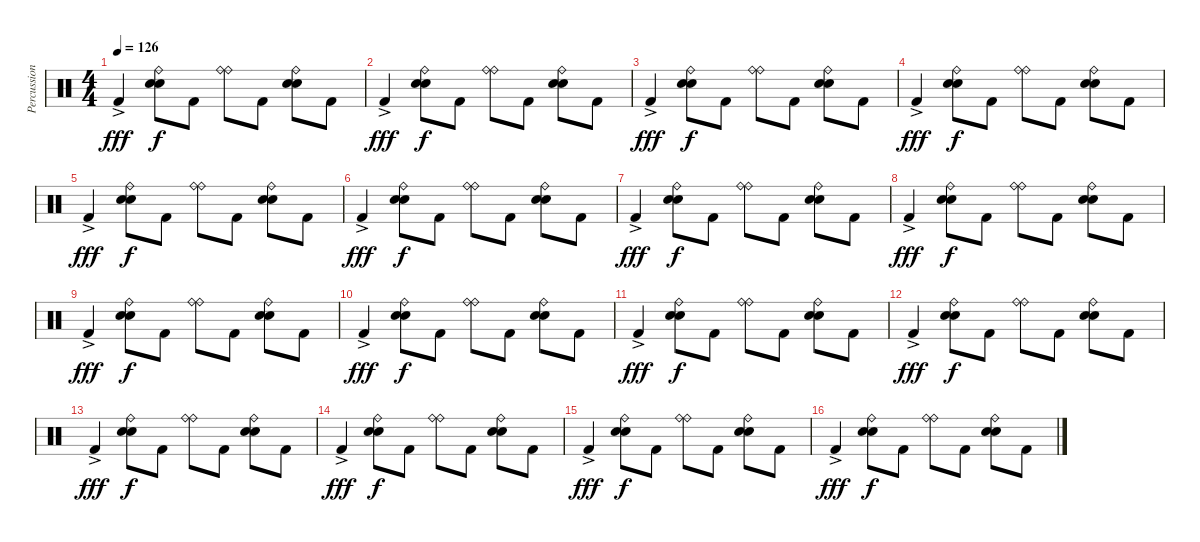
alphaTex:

\track ("Percussion" "Percussion") {instrument percussion}
\staff {score}
\articulation defaults
\ts (4 4)
\tempo 126
\clef neutral
\ks c "Kick (hit) 2"{ac}.4{dy fff}
("Snare (hit) 2" "Ride (bell)" "Snare (hit) 2").8{dy f} "Kick (hit) 2".8 ("Ride (bell)" "Ride (bell)").8 "Kick (hit) 2".8 ("Snare (hit) 2" "Ride (bell)" "Snare (hit) 2").8 "Kick (hit) 2".8 |
"Kick (hit) 2"{ac}.4{dy fff} ("Snare (hit) 2" "Ride (bell)" "Snare (hit) 2").8{dy f} "Kick (hit) 2".8 ("Ride (bell)" "Ride (bell)").8 "Kick (hit) 2".8 ("Snare (hit) 2" "Ride (bell)" "Snare (hit) 2").8 "Kick (hit) 2".8 |
"Kick (hit) 2"{ac}.4{dy fff} ("Snare (hit) 2" "Ride (bell)" "Snare (hit) 2").8{dy f} "Kick (hit) 2".8 ("Ride (bell)" "Ride (bell)").8 "Kick (hit) 2".8 ("Snare (hit) 2" "Ride (bell)" "Snare (hit) 2").8 "Kick (hit) 2".8 |
"Kick (hit) 2"{ac}.4{dy fff} ("Snare (hit) 2" "Ride (bell)" "Snare (hit) 2").8{dy f} "Kick (hit) 2".8 ("Ride (bell)" "Ride (bell)").8 "Kick (hit) 2".8 ("Snare (hit) 2" "Ride (bell)" "Snare (hit) 2").8 "Kick (hit) 2".8 |
"Kick (hit) 2"{ac}.4{dy fff} ("Snare (hit) 2" "Ride (bell)" "Snare (hit) 2").8{dy f} "Kick (hit) 2".8 ("Ride (bell)" "Ride (bell)").8 "Kick (hit) 2".8 ("Snare (hit) 2" "Ride (bell)" "Snare (hit) 2").8 "Kick (hit) 2".8 |
"Kick (hit) 2"{ac}.4{dy fff} ("Snare (hit) 2" "Ride (bell)" "Snare (hit) 2").8{dy f} "Kick (hit) 2".8 ("Ride (bell)" "Ride (bell)").8 "Kick (hit) 2".8 ("Snare (hit) 2" "Ride (bell)" "Snare (hit) 2").8 "Kick (hit) 2".8 |
"Kick (hit) 2"{ac}.4{dy fff} ("Snare (hit) 2" "Ride (bell)" "Snare (hit) 2").8{dy f} "Kick (hit) 2".8 ("Ride (bell)" "Ride (bell)").8 "Kick (hit) 2".8 ("Snare (hit) 2" "Ride (bell)" "Snare (hit) 2").8 "Kick (hit) 2".8 |
"Kick (hit) 2"{ac}.4{dy fff} ("Snare (hit) 2" "Ride (bell)" "Snare (hit) 2").8{dy f} "Kick (hit) 2".8 ("Ride (bell)" "Ride (bell)").8 "Kick (hit) 2".8 ("Snare (hit) 2" "Ride (bell)" "Snare (hit) 2").8 "Kick (hit) 2".8 |
"Kick (hit) 2"{ac}.4{dy fff} ("Snare (hit) 2" "Ride (bell)" "Snare (hit) 2").8{dy f} "Kick (hit) 2".8 ("Ride (bell)" "Ride (bell)").8 "Kick (hit) 2".8 ("Snare (hit) 2" "Ride (bell)" "Snare (hit) 2").8 "Kick (hit) 2".8 |
"Kick (hit) 2"{ac}.4{dy fff} ("Snare (hit) 2" "Ride (bell)" "Snare (hit) 2").8{dy f} "Kick (hit) 2".8 ("Ride (bell)" "Ride (bell)").8 "Kick (hit) 2".8 ("Snare (hit) 2" "Ride (bell)" "Snare (hit) 2").8 "Kick (hit) 2".8 |
"Kick (hit) 2"{ac}.4{dy fff} ("Snare (hit) 2" "Ride (bell)" "Snare (hit) 2").8{dy f} "Kick (hit) 2".8 ("Ride (bell)" "Ride (bell)").8 "Kick (hit) 2".8 ("Snare (hit) 2" "Ride (bell)" "Snare (hit) 2").8 "Kick (hit) 2".8 |
"Kick (hit) 2"{ac}.4{dy fff} ("Snare (hit) 2" "Ride (bell)" "Snare (hit) 2").8{dy f} "Kick (hit) 2".8 ("Ride (bell)" "Ride (bell)").8 "Kick (hit) 2".8 ("Snare (hit) 2" "Ride (bell)" "Snare (hit) 2").8 "Kick (hit) 2".8 |
"Kick (hit) 2"{ac}.4{dy fff} ("Snare (hit) 2" "Ride (bell)" "Snare (hit) 2").8{dy f} "Kick (hit) 2".8 ("Ride (bell)" "Ride (bell)").8 "Kick (hit) 2".8 ("Snare (hit) 2" "Ride (bell)" "Snare (hit) 2").8 "Kick (hit) 2".8 |
"Kick (hit) 2"{ac}.4{dy fff} ("Snare (hit) 2" "Ride (bell)" "Snare (hit) 2").8{dy f} "Kick (hit) 2".8 ("Ride (bell)" "Ride (bell)").8 "Kick (hit) 2".8 ("Snare (hit) 2" "Ride (bell)" "Snare (hit) 2").8 "Kick (hit) 2".8 |
"Kick (hit) 2"{ac}.4{dy fff} ("Snare (hit) 2" "Ride (bell)" "Snare (hit) 2").8{dy f} "Kick (hit) 2".8 ("Ride (bell)" "Ride (bell)").8 "Kick (hit) 2".8 ("Snare (hit) 2" "Ride (bell)" "Snare (hit) 2").8 "Kick (hit) 2".8 |
"Kick (hit) 2"{ac}.4{dy fff} ("Snare (hit) 2" "Ride (bell)" "Snare (hit) 2").8{dy f} "Kick (hit) 2".8 ("Ride (bell)" "Ride (bell)").8 "Kick (hit) 2".8 ("Snare (hit) 2" "Ride (bell)" "Snare (hit) 2").8 "Kick (hit) 2".8
